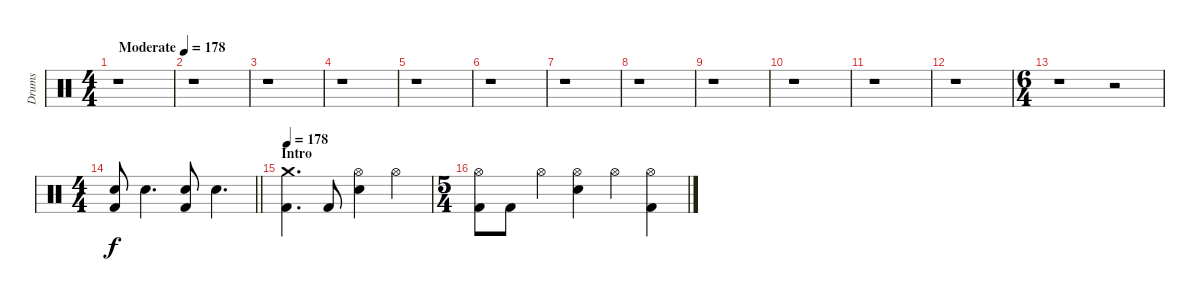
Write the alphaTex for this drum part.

\track ("Drums" "Drums") {instrument percussion}
\staff {score}
\articulation defaults
\ts (4 4)
\tempo (178 "Moderate")
\tempo 176
\tempo (178 "Moderate")
\clef neutral
\ks c
r.1{dy f} |
r.1 |
r.1 |
r.1 |
r.1 |
r.1 |
r.1 |
r.1 |
r.1 |
r.1 |
r.1 |
r.1 |
\ts (6 4)
r.1 r.2 |
\ts (4 4)
\barLineRight lightlight
("Electric Snare (hit)" "Kick (hit) 2").8 "Electric Snare (hit)".4{d} ("Electric Snare (hit)" "Kick (hit) 2").8 "Electric Snare (hit)".4{d} |
\section ("" "Intro")
\tempo 178
("Crash medium (hit)" "Kick (hit) 2").4{d} "Kick (hit) 2".8 ("Hi-Hat (open)" "Electric Snare (hit)").4 "Hi-Hat (open)".4 |
\ts (5 4)
("Hi-Hat (open)" "Kick (hit) 2").8 "Kick (hit) 2".8 "Hi-Hat (open)".4 ("Hi-Hat (open)" "Electric Snare (hit)").4 "Hi-Hat (open)".4 ("Hi-Hat (open)" "Kick (hit) 2").4
